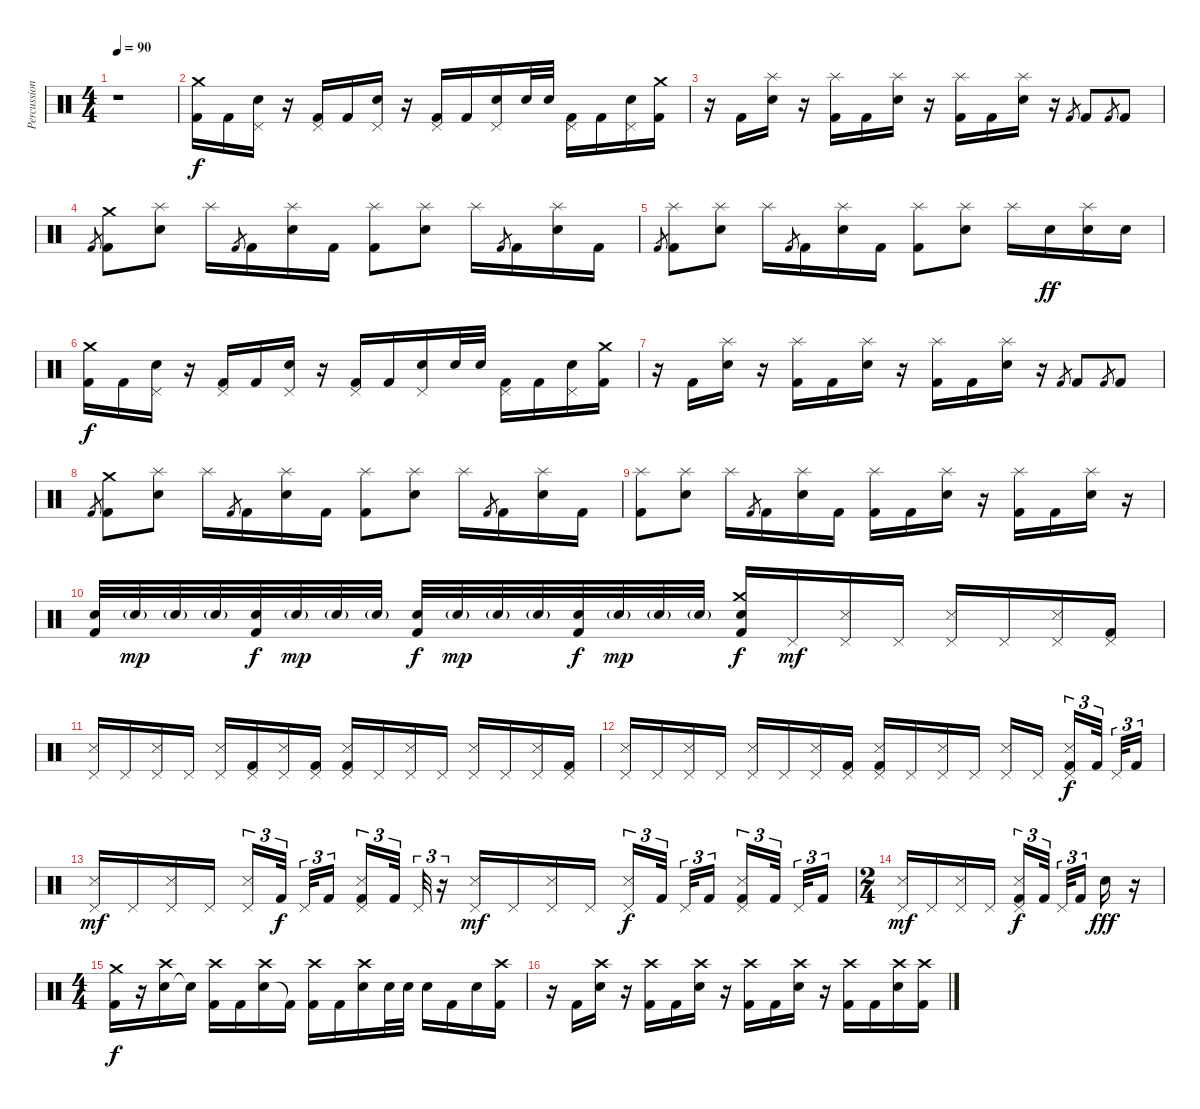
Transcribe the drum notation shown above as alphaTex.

\track ("Percussions" "Percussion") {instrument percussion}
\staff {score}
\articulation defaults
\ts (4 4)
\tempo 90
\clef neutral
\ks c
r.1{dy f} |
\section ("" "")
("Kick (hit) 2" "Crash medium (hit)").16 "Kick (hit) 2".16 ("Electric Snare (hit)" "Pedal Hi-Hat (hit)").16 r.16 ("Kick (hit) 2" "Pedal Hi-Hat (hit)").16 "Kick (hit) 2".16 ("Electric Snare (hit)" "Pedal Hi-Hat (hit)").16 r.16 ("Kick (hit) 2" "Pedal Hi-Hat (hit)").16 "Kick (hit) 2".16 ("Electric Snare (hit)" "Pedal Hi-Hat (hit)").16 "Electric Snare (hit)".32 "Electric Snare (hit)".32 ("Kick (hit) 2" "Pedal Hi-Hat (hit)").16 "Kick (hit) 2".16 ("Electric Snare (hit)" "Pedal Hi-Hat (hit)").16 ("Kick (hit) 2" "Crash medium (hit)").16 |
r.16 "Kick (hit) 2".16 ("Electric Snare (hit)" "Splash (hit)").16 r.16 ("Kick (hit) 2" "Splash (hit)").16 "Kick (hit) 2".16 ("Electric Snare (hit)" "Splash (hit)").16 r.16 ("Kick (hit) 2" "Splash (hit)").16 "Kick (hit) 2".16 ("Electric Snare (hit)" "Splash (hit)").16 r.16 "Kick (hit) 2".8{gr} "Kick (hit) 2".8 "Kick (hit) 2".8{gr} "Kick (hit) 2".8 |
"Kick (hit) 2".8{gr} ("Kick (hit) 2" "Crash medium (hit)").8 ("Electric Snare (hit)" "Splash (hit)").8 "Splash (hit)".16 "Kick (hit) 2".8{gr} "Kick (hit) 2".16 ("Electric Snare (hit)" "Splash (hit)").16 "Kick (hit) 2".16 ("Kick (hit) 2" "Splash (hit)").8 ("Electric Snare (hit)" "Splash (hit)").8 "Splash (hit)".16 "Kick (hit) 2".8{gr} "Kick (hit) 2".16 ("Electric Snare (hit)" "Splash (hit)").16 "Kick (hit) 2".16 |
"Kick (hit) 2".8{gr} ("Kick (hit) 2" "Splash (hit)").8 ("Electric Snare (hit)" "Splash (hit)").8 "Splash (hit)".16 "Kick (hit) 2".8{gr} "Kick (hit) 2".16 ("Electric Snare (hit)" "Splash (hit)").16 "Kick (hit) 2".16 ("Kick (hit) 2" "Splash (hit)").8 ("Electric Snare (hit)" "Splash (hit)").8 "Splash (hit)".16 "Electric Snare (hit)".16{dy ff} ("Electric Snare (hit)" "Splash (hit)").16 "Electric Snare (hit)".16 |
("Kick (hit) 2" "Crash medium (hit)").16{dy f} "Kick (hit) 2".16 ("Electric Snare (hit)" "Pedal Hi-Hat (hit)").16 r.16 ("Kick (hit) 2" "Pedal Hi-Hat (hit)").16 "Kick (hit) 2".16 ("Electric Snare (hit)" "Pedal Hi-Hat (hit)").16 r.16 ("Kick (hit) 2" "Pedal Hi-Hat (hit)").16 "Kick (hit) 2".16 ("Electric Snare (hit)" "Pedal Hi-Hat (hit)").16 "Electric Snare (hit)".32 "Electric Snare (hit)".32 ("Kick (hit) 2" "Pedal Hi-Hat (hit)").16 "Kick (hit) 2".16 ("Electric Snare (hit)" "Pedal Hi-Hat (hit)").16 ("Kick (hit) 2" "Crash medium (hit)").16 |
r.16 "Kick (hit) 2".16 ("Electric Snare (hit)" "Splash (hit)").16 r.16 ("Kick (hit) 2" "Splash (hit)").16 "Kick (hit) 2".16 ("Electric Snare (hit)" "Splash (hit)").16 r.16 ("Kick (hit) 2" "Splash (hit)").16 "Kick (hit) 2".16 ("Electric Snare (hit)" "Splash (hit)").16 r.16 "Kick (hit) 2".8{gr} "Kick (hit) 2".8 "Kick (hit) 2".8{gr} "Kick (hit) 2".8 |
"Kick (hit) 2".8{gr} ("Kick (hit) 2" "Crash medium (hit)").8 ("Electric Snare (hit)" "Splash (hit)").8 "Splash (hit)".16 "Kick (hit) 2".8{gr} "Kick (hit) 2".16 ("Electric Snare (hit)" "Splash (hit)").16 "Kick (hit) 2".16 ("Kick (hit) 2" "Splash (hit)").8 ("Electric Snare (hit)" "Splash (hit)").8 "Splash (hit)".16 "Kick (hit) 2".8{gr} "Kick (hit) 2".16 ("Electric Snare (hit)" "Splash (hit)").16 "Kick (hit) 2".16 |
("Kick (hit) 2" "Splash (hit)").8 ("Electric Snare (hit)" "Splash (hit)").8 "Splash (hit)".16 "Kick (hit) 2".8{gr} "Kick (hit) 2".16 ("Electric Snare (hit)" "Splash (hit)").16 "Kick (hit) 2".16 ("Kick (hit) 2" "Splash (hit)").16 "Kick (hit) 2".16 ("Electric Snare (hit)" "Splash (hit)").16 r.16 ("Kick (hit) 2" "Splash (hit)").16 "Kick (hit) 2".16 ("Electric Snare (hit)" "Splash (hit)").16 r.16 |
("Electric Snare (hit)" "Kick (hit) 2").32 "Electric Snare (hit)"{g}.32{dy mp} "Electric Snare (hit)"{g}.32 "Electric Snare (hit)"{g}.32 ("Electric Snare (hit)" "Kick (hit) 2").32{dy f} "Electric Snare (hit)"{g}.32{dy mp} "Electric Snare (hit)"{g}.32 "Electric Snare (hit)"{g}.32 ("Electric Snare (hit)" "Kick (hit) 2").32{dy f} "Electric Snare (hit)"{g}.32{dy mp} "Electric Snare (hit)"{g}.32 "Electric Snare (hit)"{g}.32 ("Electric Snare (hit)" "Kick (hit) 2").32{dy f} "Electric Snare (hit)"{g}.32{dy mp} "Electric Snare (hit)"{g}.32 "Electric Snare (hit)"{g}.32 ("Electric Snare (hit)" "Kick (hit) 2" "Crash medium (hit)").16{dy f} "Pedal Hi-Hat (hit)".16{dy mf} ("Pedal Hi-Hat (hit)" "Snare (side stick) 3").16 "Pedal Hi-Hat (hit)".16 ("Pedal Hi-Hat (hit)" "Snare (side stick) 3").16 "Pedal Hi-Hat (hit)".16 ("Pedal Hi-Hat (hit)" "Snare (side stick) 3").16 ("Kick (hit) 2" "Pedal Hi-Hat (hit)").16 |
("Pedal Hi-Hat (hit)" "Snare (side stick) 3").16 "Pedal Hi-Hat (hit)".16 ("Pedal Hi-Hat (hit)" "Snare (side stick) 3").16 "Pedal Hi-Hat (hit)".16 ("Pedal Hi-Hat (hit)" "Snare (side stick) 3").16 ("Kick (hit) 2" "Pedal Hi-Hat (hit)").16 ("Pedal Hi-Hat (hit)" "Snare (side stick) 3").16 ("Kick (hit) 2" "Pedal Hi-Hat (hit)").16 ("Kick (hit) 2" "Pedal Hi-Hat (hit)" "Snare (side stick) 3").16 "Pedal Hi-Hat (hit)".16 ("Pedal Hi-Hat (hit)" "Snare (side stick) 3").16 "Pedal Hi-Hat (hit)".16 ("Pedal Hi-Hat (hit)" "Snare (side stick) 3").16 "Pedal Hi-Hat (hit)".16 ("Pedal Hi-Hat (hit)" "Snare (side stick) 3").16 ("Kick (hit) 2" "Pedal Hi-Hat (hit)").16 |
("Pedal Hi-Hat (hit)" "Snare (side stick) 3").16 "Pedal Hi-Hat (hit)".16 ("Pedal Hi-Hat (hit)" "Snare (side stick) 3").16 "Pedal Hi-Hat (hit)".16 ("Pedal Hi-Hat (hit)" "Snare (side stick) 3").16 "Pedal Hi-Hat (hit)".16 ("Pedal Hi-Hat (hit)" "Snare (side stick) 3").16 ("Kick (hit) 2" "Pedal Hi-Hat (hit)").16 ("Kick (hit) 2" "Pedal Hi-Hat (hit)" "Snare (side stick) 3").16 "Pedal Hi-Hat (hit)".16 ("Pedal Hi-Hat (hit)" "Snare (side stick) 3").16 "Pedal Hi-Hat (hit)".16 ("Pedal Hi-Hat (hit)" "Snare (side stick) 3").16 "Pedal Hi-Hat (hit)".16 ("Kick (hit) 2" "Pedal Hi-Hat (hit)" "Snare (side stick) 3").16{tu (3 2) dy f} "Kick (hit) 2".32{tu (3 2)} "Pedal Hi-Hat (hit)".32{tu (3 2)} "Kick (hit) 2".16{tu (3 2)} |
("Pedal Hi-Hat (hit)" "Snare (side stick) 3").16{dy mf} "Pedal Hi-Hat (hit)".16 ("Pedal Hi-Hat (hit)" "Snare (side stick) 3").16 "Pedal Hi-Hat (hit)".16 ("Pedal Hi-Hat (hit)" "Snare (side stick) 3").16{tu (3 2)} "Kick (hit) 2".32{tu (3 2) dy f} "Pedal Hi-Hat (hit)".32{tu (3 2)} "Kick (hit) 2".16{tu (3 2)} ("Kick (hit) 2" "Pedal Hi-Hat (hit)" "Snare (side stick) 3").16{tu (3 2)} "Kick (hit) 2".32{tu (3 2)} "Pedal Hi-Hat (hit)".32{tu (3 2)} r.16{tu (3 2)} ("Pedal Hi-Hat (hit)" "Snare (side stick) 3").16{dy mf} "Pedal Hi-Hat (hit)".16 ("Pedal Hi-Hat (hit)" "Snare (side stick) 3").16 "Pedal Hi-Hat (hit)".16 ("Pedal Hi-Hat (hit)" "Snare (side stick) 3").16{tu (3 2) dy f} "Kick (hit) 2".32{tu (3 2)} "Pedal Hi-Hat (hit)".32{tu (3 2)} "Kick (hit) 2".16{tu (3 2)} ("Kick (hit) 2" "Pedal Hi-Hat (hit)" "Snare (side stick) 3").16{tu (3 2)} "Kick (hit) 2".32{tu (3 2)} "Pedal Hi-Hat (hit)".32{tu (3 2)} "Kick (hit) 2".16{tu (3 2)} |
\ts (2 4)
("Pedal Hi-Hat (hit)" "Snare (side stick) 3").16{dy mf} "Pedal Hi-Hat (hit)".16 ("Pedal Hi-Hat (hit)" "Snare (side stick) 3").16 "Pedal Hi-Hat (hit)".16 ("Kick (hit) 2" "Pedal Hi-Hat (hit)" "Snare (side stick) 3").16{tu (3 2) dy f} "Kick (hit) 2".32{tu (3 2)} "Pedal Hi-Hat (hit)".32{tu (3 2)} "Kick (hit) 2".16{tu (3 2)} "Electric Snare (hit)".16{dy fff} r.16 |
\ts (4 4)
\section ("" "")
("Kick (hit) 2" "Crash medium (hit)").16{dy f} r.16 ("Electric Snare (hit)" "Crash high (hit)").16 "Snare (hit)"{t}.16 ("Kick (hit) 2" "Crash high (hit)").16 "Kick (hit) 2".16 ("Electric Snare (hit)" "Crash high (hit)").16 "Kick (hit) 2"{t}.16 ("Kick (hit) 2" "Crash high (hit)").16 "Kick (hit) 2".16 ("Electric Snare (hit)" "Crash high (hit)").16 "Electric Snare (hit)".32 "Electric Snare (hit)".32 "Electric Snare (hit)".16 "Kick (hit) 2".16 "Electric Snare (hit)".16 ("Kick (hit) 2" "Crash high (hit)").16 |
r.16 "Kick (hit) 2".16 ("Electric Snare (hit)" "Crash high (hit)").16 r.16 ("Kick (hit) 2" "Crash high (hit)").16 "Kick (hit) 2".16 ("Electric Snare (hit)" "Crash high (hit)").16 r.16 ("Kick (hit) 2" "Crash high (hit)").16 "Kick (hit) 2".16 ("Electric Snare (hit)" "Crash high (hit)").16 r.16 ("Kick (hit) 2" "Crash high (hit)").16 "Kick (hit) 2".16 ("Electric Snare (hit)" "Crash high (hit)").16 ("Kick (hit) 2" "Crash high (hit)").16
